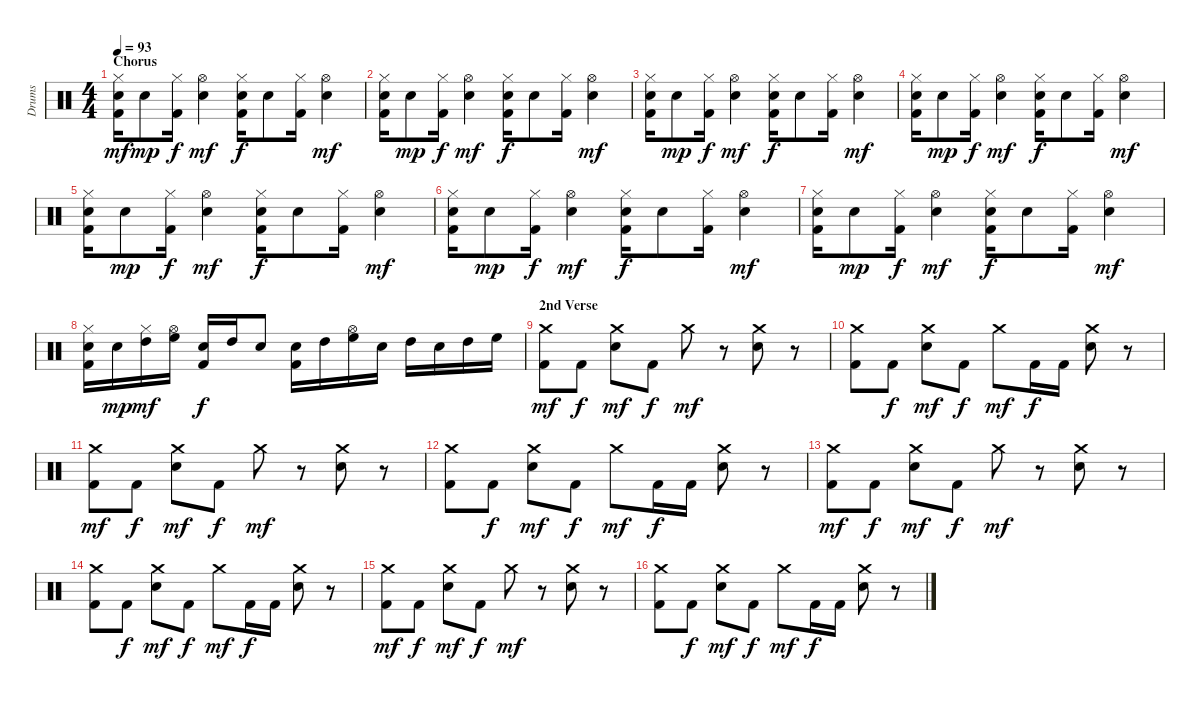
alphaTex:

\track ("Drums" "Drums") {instrument percussion}
\staff {score}
\articulation defaults
\ts (4 4)
\section ("" "Chorus")
\tempo 93
\clef neutral
\ks c
("Kick (hit) 2" "Snare (hit) 2" "Hi-Hat (closed)").16{dy mf} "Snare (hit) 2".8{dy mp} ("Kick (hit) 2" "Hi-Hat (closed)").16{dy f} ("Snare (hit) 2" "Hi-Hat (open)").4{dy mf} ("Kick (hit) 2" "Snare (hit) 2" "Hi-Hat (closed)").16{dy f} "Snare (hit) 2".8 ("Kick (hit) 2" "Hi-Hat (closed)").16 ("Snare (hit) 2" "Hi-Hat (open)").4{dy mf} |
("Kick (hit) 2" "Snare (hit) 2" "Hi-Hat (closed)").16 "Snare (hit) 2".8{dy mp} ("Kick (hit) 2" "Hi-Hat (closed)").16{dy f} ("Snare (hit) 2" "Hi-Hat (open)").4{dy mf} ("Kick (hit) 2" "Snare (hit) 2" "Hi-Hat (closed)").16{dy f} "Snare (hit) 2".8 ("Kick (hit) 2" "Hi-Hat (closed)").16 ("Snare (hit) 2" "Hi-Hat (open)").4{dy mf} |
("Kick (hit) 2" "Snare (hit) 2" "Hi-Hat (closed)").16 "Snare (hit) 2".8{dy mp} ("Kick (hit) 2" "Hi-Hat (closed)").16{dy f} ("Snare (hit) 2" "Hi-Hat (open)").4{dy mf} ("Kick (hit) 2" "Snare (hit) 2" "Hi-Hat (closed)").16{dy f} "Snare (hit) 2".8 ("Kick (hit) 2" "Hi-Hat (closed)").16 ("Snare (hit) 2" "Hi-Hat (open)").4{dy mf} |
("Kick (hit) 2" "Snare (hit) 2" "Hi-Hat (closed)").16 "Snare (hit) 2".8{dy mp} ("Kick (hit) 2" "Hi-Hat (closed)").16{dy f} ("Snare (hit) 2" "Hi-Hat (open)").4{dy mf} ("Kick (hit) 2" "Snare (hit) 2" "Hi-Hat (closed)").16{dy f} "Snare (hit) 2".8 ("Kick (hit) 2" "Hi-Hat (closed)").16 ("Snare (hit) 2" "Hi-Hat (open)").4{dy mf} |
("Kick (hit) 2" "Snare (hit) 2" "Hi-Hat (closed)").16 "Snare (hit) 2".8{dy mp} ("Kick (hit) 2" "Hi-Hat (closed)").16{dy f} ("Snare (hit) 2" "Hi-Hat (open)").4{dy mf} ("Kick (hit) 2" "Snare (hit) 2" "Hi-Hat (closed)").16{dy f} "Snare (hit) 2".8 ("Kick (hit) 2" "Hi-Hat (closed)").16 ("Snare (hit) 2" "Hi-Hat (open)").4{dy mf} |
("Kick (hit) 2" "Snare (hit) 2" "Hi-Hat (closed)").16 "Snare (hit) 2".8{dy mp} ("Kick (hit) 2" "Hi-Hat (closed)").16{dy f} ("Snare (hit) 2" "Hi-Hat (open)").4{dy mf} ("Kick (hit) 2" "Snare (hit) 2" "Hi-Hat (closed)").16{dy f} "Snare (hit) 2".8 ("Kick (hit) 2" "Hi-Hat (closed)").16 ("Snare (hit) 2" "Hi-Hat (open)").4{dy mf} |
("Kick (hit) 2" "Snare (hit) 2" "Hi-Hat (closed)").16 "Snare (hit) 2".8{dy mp} ("Kick (hit) 2" "Hi-Hat (closed)").16{dy f} ("Snare (hit) 2" "Hi-Hat (open)").4{dy mf} ("Kick (hit) 2" "Snare (hit) 2" "Hi-Hat (closed)").16{dy f} "Snare (hit) 2".8 ("Kick (hit) 2" "Hi-Hat (closed)").16 ("Snare (hit) 2" "Hi-Hat (open)").4{dy mf} |
("Kick (hit) 2" "Snare (hit) 2" "Hi-Hat (closed)").16 "Snare (hit) 2".16{dy mp} ("High Tom (hit)" "Hi-Hat (closed)").16{dy mf} ("High Floor Tom (hit)" "Hi-Hat (open)").16 ("Kick (hit) 2" "Snare (hit) 2").16{dy f} "High Tom (hit)".16 "Snare (hit) 2".8 ("Kick (hit) 2" "Snare (hit) 2").16 "High Tom (hit)".16 ("High Floor Tom (hit)" "Hi-Hat (open)").16 "Snare (hit) 2".16 "High Tom (hit)".16 "Snare (hit) 2".16 "High Tom (hit)".16 "High Floor Tom (hit)".16 |
\section ("" "2nd Verse")
("Kick (hit) 2" "Crash medium (hit)").8{dy mf} "Kick (hit) 2".8{dy f} ("Snare (hit) 2" "Crash medium (hit)").8{dy mf} "Kick (hit) 2".8{dy f} "Crash medium (hit)".8{dy mf} r.8 ("Snare (hit) 2" "Crash medium (hit)").8 r.8 |
("Kick (hit) 2" "Crash medium (hit)").8 "Kick (hit) 2".8{dy f} ("Snare (hit) 2" "Crash medium (hit)").8{dy mf} "Kick (hit) 2".8{dy f} "Crash medium (hit)".8{dy mf} "Kick (hit) 2".16{dy f} "Kick (hit) 2".16 ("Snare (hit) 2" "Crash medium (hit)").8 r.8 |
("Kick (hit) 2" "Crash medium (hit)").8{dy mf} "Kick (hit) 2".8{dy f} ("Snare (hit) 2" "Crash medium (hit)").8{dy mf} "Kick (hit) 2".8{dy f} "Crash medium (hit)".8{dy mf} r.8 ("Snare (hit) 2" "Crash medium (hit)").8 r.8 |
("Kick (hit) 2" "Crash medium (hit)").8 "Kick (hit) 2".8{dy f} ("Snare (hit) 2" "Crash medium (hit)").8{dy mf} "Kick (hit) 2".8{dy f} "Crash medium (hit)".8{dy mf} "Kick (hit) 2".16{dy f} "Kick (hit) 2".16 ("Snare (hit) 2" "Crash medium (hit)").8 r.8 |
("Kick (hit) 2" "Crash medium (hit)").8{dy mf} "Kick (hit) 2".8{dy f} ("Snare (hit) 2" "Crash medium (hit)").8{dy mf} "Kick (hit) 2".8{dy f} "Crash medium (hit)".8{dy mf} r.8 ("Snare (hit) 2" "Crash medium (hit)").8 r.8 |
("Kick (hit) 2" "Crash medium (hit)").8 "Kick (hit) 2".8{dy f} ("Snare (hit) 2" "Crash medium (hit)").8{dy mf} "Kick (hit) 2".8{dy f} "Crash medium (hit)".8{dy mf} "Kick (hit) 2".16{dy f} "Kick (hit) 2".16 ("Snare (hit) 2" "Crash medium (hit)").8 r.8 |
("Kick (hit) 2" "Crash medium (hit)").8{dy mf} "Kick (hit) 2".8{dy f} ("Snare (hit) 2" "Crash medium (hit)").8{dy mf} "Kick (hit) 2".8{dy f} "Crash medium (hit)".8{dy mf} r.8 ("Snare (hit) 2" "Crash medium (hit)").8 r.8 |
("Kick (hit) 2" "Crash medium (hit)").8 "Kick (hit) 2".8{dy f} ("Snare (hit) 2" "Crash medium (hit)").8{dy mf} "Kick (hit) 2".8{dy f} "Crash medium (hit)".8{dy mf} "Kick (hit) 2".16{dy f} "Kick (hit) 2".16 ("Snare (hit) 2" "Crash medium (hit)").8 r.8
